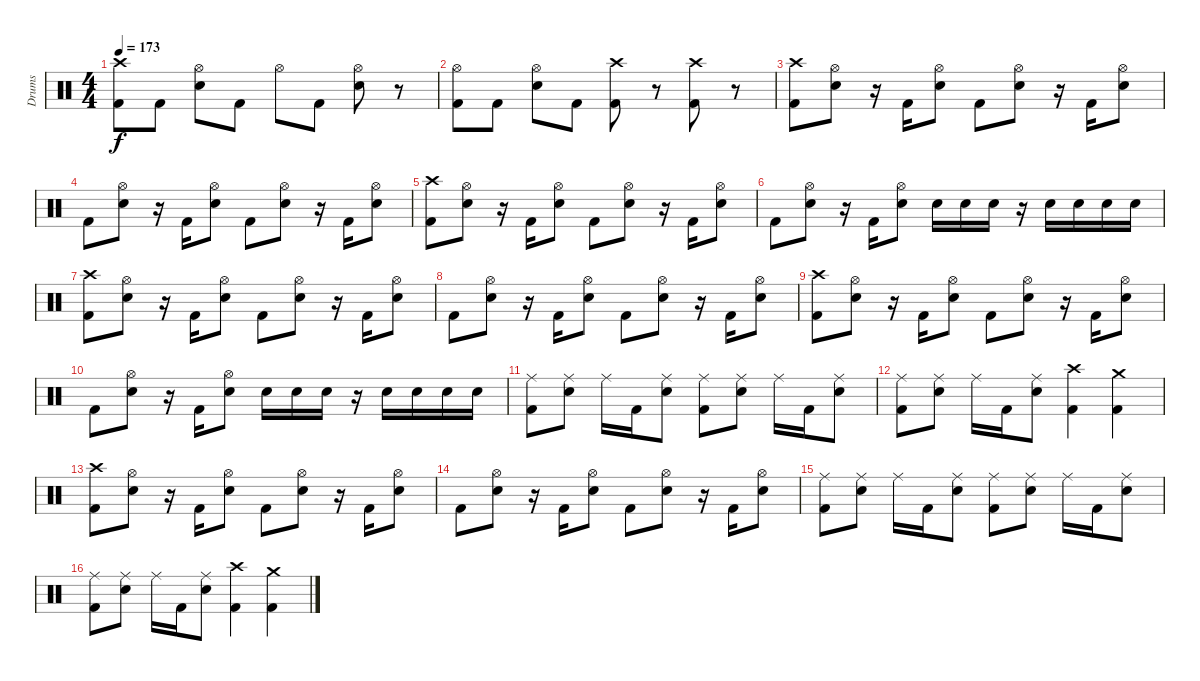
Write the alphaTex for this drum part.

\track ("Drums" "Drums") {instrument percussion}
\staff {score}
\articulation defaults
\ts (4 4)
\tempo 173
\clef neutral
\ks c
("Crash high (hit)" "Kick (hit) 2").8{dy f} "Kick (hit) 2".8 ("Hi-Hat (open)" "Electric Snare (hit)").8 "Kick (hit) 2".8 "Hi-Hat (open)".8 "Kick (hit) 2".8 ("Hi-Hat (open)" "Electric Snare (hit)").8 r.8 |
("Hi-Hat (open)" "Kick (hit) 2").8 "Kick (hit) 2".8 ("Hi-Hat (open)" "Electric Snare (hit)").8 "Kick (hit) 2".8 ("Crash high (hit)" "Kick (hit) 2").8 r.8 ("Crash high (hit)" "Kick (hit) 2").8 r.8 |
("Crash high (hit)" "Kick (hit) 2").8 ("Hi-Hat (open)" "Electric Snare (hit)").8 r.16 "Kick (hit) 2".16 ("Hi-Hat (open)" "Electric Snare (hit)").8 "Kick (hit) 2".8 ("Hi-Hat (open)" "Electric Snare (hit)").8 r.16 "Kick (hit) 2".16 ("Hi-Hat (open)" "Electric Snare (hit)").8 |
"Kick (hit) 2".8 ("Hi-Hat (open)" "Electric Snare (hit)").8 r.16 "Kick (hit) 2".16 ("Hi-Hat (open)" "Electric Snare (hit)").8 "Kick (hit) 2".8 ("Hi-Hat (open)" "Electric Snare (hit)").8 r.16 "Kick (hit) 2".16 ("Hi-Hat (open)" "Electric Snare (hit)").8 |
("Crash high (hit)" "Kick (hit) 2").8 ("Hi-Hat (open)" "Electric Snare (hit)").8 r.16 "Kick (hit) 2".16 ("Hi-Hat (open)" "Electric Snare (hit)").8 "Kick (hit) 2".8 ("Hi-Hat (open)" "Electric Snare (hit)").8 r.16 "Kick (hit) 2".16 ("Hi-Hat (open)" "Electric Snare (hit)").8 |
"Kick (hit) 2".8 ("Hi-Hat (open)" "Electric Snare (hit)").8 r.16 "Kick (hit) 2".16 ("Hi-Hat (open)" "Electric Snare (hit)").8 "Electric Snare (hit)".16 "Electric Snare (hit)".16 "Electric Snare (hit)".16 r.16 "Electric Snare (hit)".16 "Electric Snare (hit)".16 "Electric Snare (hit)".16 "Electric Snare (hit)".16 |
("Crash high (hit)" "Kick (hit) 2").8 ("Hi-Hat (open)" "Electric Snare (hit)").8 r.16 "Kick (hit) 2".16 ("Hi-Hat (open)" "Electric Snare (hit)").8 "Kick (hit) 2".8 ("Hi-Hat (open)" "Electric Snare (hit)").8 r.16 "Kick (hit) 2".16 ("Hi-Hat (open)" "Electric Snare (hit)").8 |
"Kick (hit) 2".8 ("Hi-Hat (open)" "Electric Snare (hit)").8 r.16 "Kick (hit) 2".16 ("Hi-Hat (open)" "Electric Snare (hit)").8 "Kick (hit) 2".8 ("Hi-Hat (open)" "Electric Snare (hit)").8 r.16 "Kick (hit) 2".16 ("Hi-Hat (open)" "Electric Snare (hit)").8 |
("Crash high (hit)" "Kick (hit) 2").8 ("Hi-Hat (open)" "Electric Snare (hit)").8 r.16 "Kick (hit) 2".16 ("Hi-Hat (open)" "Electric Snare (hit)").8 "Kick (hit) 2".8 ("Hi-Hat (open)" "Electric Snare (hit)").8 r.16 "Kick (hit) 2".16 ("Hi-Hat (open)" "Electric Snare (hit)").8 |
"Kick (hit) 2".8 ("Hi-Hat (open)" "Electric Snare (hit)").8 r.16 "Kick (hit) 2".16 ("Hi-Hat (open)" "Electric Snare (hit)").8 "Electric Snare (hit)".16 "Electric Snare (hit)".16 "Electric Snare (hit)".16 r.16 "Electric Snare (hit)".16 "Electric Snare (hit)".16 "Electric Snare (hit)".16 "Electric Snare (hit)".16 |
("Ride (middle)" "Kick (hit) 2").8 ("Ride (middle)" "Electric Snare (hit)").8 "Ride (middle)".16 "Kick (hit) 2".16 ("Ride (middle)" "Electric Snare (hit)").8 ("Ride (middle)" "Kick (hit) 2").8 ("Ride (middle)" "Electric Snare (hit)").8 "Ride (middle)".16 "Kick (hit) 2".16 ("Ride (middle)" "Electric Snare (hit)").8 |
("Ride (middle)" "Kick (hit) 2").8 ("Ride (middle)" "Electric Snare (hit)").8 "Ride (middle)".16 "Kick (hit) 2".16 ("Ride (middle)" "Electric Snare (hit)").8 ("Crash high (hit)" "Kick (hit) 2").4 ("Crash medium (hit)" "Kick (hit) 2").4 |
("Crash high (hit)" "Kick (hit) 2").8 ("Hi-Hat (open)" "Electric Snare (hit)").8 r.16 "Kick (hit) 2".16 ("Hi-Hat (open)" "Electric Snare (hit)").8 "Kick (hit) 2".8 ("Hi-Hat (open)" "Electric Snare (hit)").8 r.16 "Kick (hit) 2".16 ("Hi-Hat (open)" "Electric Snare (hit)").8 |
"Kick (hit) 2".8 ("Hi-Hat (open)" "Electric Snare (hit)").8 r.16 "Kick (hit) 2".16 ("Hi-Hat (open)" "Electric Snare (hit)").8 "Kick (hit) 2".8 ("Hi-Hat (open)" "Electric Snare (hit)").8 r.16 "Kick (hit) 2".16 ("Hi-Hat (open)" "Electric Snare (hit)").8 |
("Ride (middle)" "Kick (hit) 2").8 ("Ride (middle)" "Electric Snare (hit)").8 "Ride (middle)".16 "Kick (hit) 2".16 ("Ride (middle)" "Electric Snare (hit)").8 ("Ride (middle)" "Kick (hit) 2").8 ("Ride (middle)" "Electric Snare (hit)").8 "Ride (middle)".16 "Kick (hit) 2".16 ("Ride (middle)" "Electric Snare (hit)").8 |
("Ride (middle)" "Kick (hit) 2").8 ("Ride (middle)" "Electric Snare (hit)").8 "Ride (middle)".16 "Kick (hit) 2".16 ("Ride (middle)" "Electric Snare (hit)").8 ("Crash high (hit)" "Kick (hit) 2").4 ("Crash medium (hit)" "Kick (hit) 2").4
